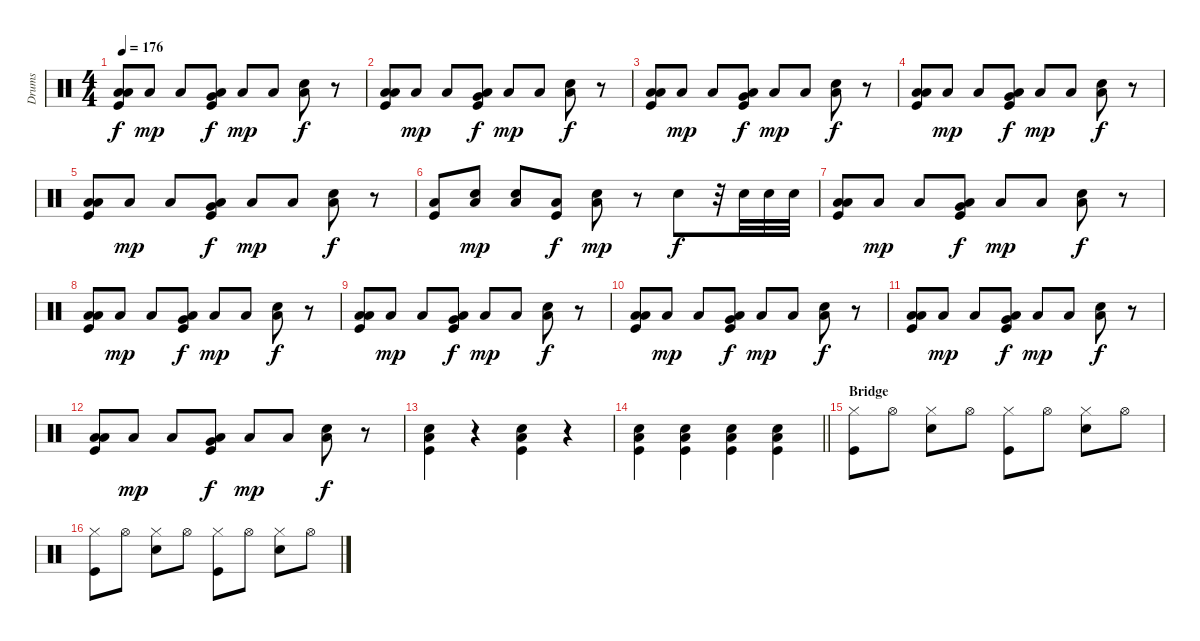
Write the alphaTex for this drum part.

\track ("Drums" "Drums") {instrument percussion}
\staff {score}
\articulation defaults
\ts (4 4)
\tempo 176
\clef neutral
\ks c
("Low Tom (hit)" "Low Floor Tom (hit)" "Kick (hit)").8{dy f} "Low Floor Tom (hit)".8{dy mp} "Low Floor Tom (hit)".8 ("Very Low Tom (hit)" "Low Floor Tom (hit)" "Kick (hit)").8{dy f} "Low Floor Tom (hit)".8{dy mp} "Low Floor Tom (hit)".8 ("Electric Snare (hit)" "Low Floor Tom (hit)").8{dy f} r.8 |
("Low Tom (hit)" "Low Floor Tom (hit)" "Kick (hit)").8 "Low Floor Tom (hit)".8{dy mp} "Low Floor Tom (hit)".8 ("Very Low Tom (hit)" "Low Floor Tom (hit)" "Kick (hit)").8{dy f} "Low Floor Tom (hit)".8{dy mp} "Low Floor Tom (hit)".8 ("Electric Snare (hit)" "Low Floor Tom (hit)").8{dy f} r.8 |
("Low Tom (hit)" "Low Floor Tom (hit)" "Kick (hit)").8 "Low Floor Tom (hit)".8{dy mp} "Low Floor Tom (hit)".8 ("Very Low Tom (hit)" "Low Floor Tom (hit)" "Kick (hit)").8{dy f} "Low Floor Tom (hit)".8{dy mp} "Low Floor Tom (hit)".8 ("Electric Snare (hit)" "Low Floor Tom (hit)").8{dy f} r.8 |
("Low Tom (hit)" "Low Floor Tom (hit)" "Kick (hit)").8 "Low Floor Tom (hit)".8{dy mp} "Low Floor Tom (hit)".8 ("Very Low Tom (hit)" "Low Floor Tom (hit)" "Kick (hit)").8{dy f} "Low Floor Tom (hit)".8{dy mp} "Low Floor Tom (hit)".8 ("Electric Snare (hit)" "Low Floor Tom (hit)").8{dy f} r.8 |
("Low Tom (hit)" "Low Floor Tom (hit)" "Kick (hit)").8 "Low Floor Tom (hit)".8{dy mp} "Low Floor Tom (hit)".8 ("Very Low Tom (hit)" "Low Floor Tom (hit)" "Kick (hit)").8{dy f} "Low Floor Tom (hit)".8{dy mp} "Low Floor Tom (hit)".8 ("Electric Snare (hit)" "Low Floor Tom (hit)").8{dy f} r.8 |
("Low Floor Tom (hit)" "Kick (hit)").8 ("Electric Snare (hit)" "Low Floor Tom (hit)").8{dy mp} ("Electric Snare (hit)" "Low Floor Tom (hit)").8 ("Low Floor Tom (hit)" "Kick (hit)").8{dy f} ("Electric Snare (hit)" "Low Floor Tom (hit)").8{dy mp} r.8 "Electric Snare (hit)".8{dy f} r.32 "Electric Snare (hit)".32 "Electric Snare (hit)".32 "Electric Snare (hit)".32 |
("Low Tom (hit)" "Low Floor Tom (hit)" "Kick (hit)").8 "Low Floor Tom (hit)".8{dy mp} "Low Floor Tom (hit)".8 ("Very Low Tom (hit)" "Low Floor Tom (hit)" "Kick (hit)").8{dy f} "Low Floor Tom (hit)".8{dy mp} "Low Floor Tom (hit)".8 ("Electric Snare (hit)" "Low Floor Tom (hit)").8{dy f} r.8 |
("Low Tom (hit)" "Low Floor Tom (hit)" "Kick (hit)").8 "Low Floor Tom (hit)".8{dy mp} "Low Floor Tom (hit)".8 ("Very Low Tom (hit)" "Low Floor Tom (hit)" "Kick (hit)").8{dy f} "Low Floor Tom (hit)".8{dy mp} "Low Floor Tom (hit)".8 ("Electric Snare (hit)" "Low Floor Tom (hit)").8{dy f} r.8 |
("Low Tom (hit)" "Low Floor Tom (hit)" "Kick (hit)").8 "Low Floor Tom (hit)".8{dy mp} "Low Floor Tom (hit)".8 ("Very Low Tom (hit)" "Low Floor Tom (hit)" "Kick (hit)").8{dy f} "Low Floor Tom (hit)".8{dy mp} "Low Floor Tom (hit)".8 ("Electric Snare (hit)" "Low Floor Tom (hit)").8{dy f} r.8 |
("Low Tom (hit)" "Low Floor Tom (hit)" "Kick (hit)").8 "Low Floor Tom (hit)".8{dy mp} "Low Floor Tom (hit)".8 ("Very Low Tom (hit)" "Low Floor Tom (hit)" "Kick (hit)").8{dy f} "Low Floor Tom (hit)".8{dy mp} "Low Floor Tom (hit)".8 ("Electric Snare (hit)" "Low Floor Tom (hit)").8{dy f} r.8 |
("Low Tom (hit)" "Low Floor Tom (hit)" "Kick (hit)").8 "Low Floor Tom (hit)".8{dy mp} "Low Floor Tom (hit)".8 ("Very Low Tom (hit)" "Low Floor Tom (hit)" "Kick (hit)").8{dy f} "Low Floor Tom (hit)".8{dy mp} "Low Floor Tom (hit)".8 ("Electric Snare (hit)" "Low Floor Tom (hit)").8{dy f} r.8 |
("Low Tom (hit)" "Low Floor Tom (hit)" "Kick (hit)").8 "Low Floor Tom (hit)".8{dy mp} "Low Floor Tom (hit)".8 ("Very Low Tom (hit)" "Low Floor Tom (hit)" "Kick (hit)").8{dy f} "Low Floor Tom (hit)".8{dy mp} "Low Floor Tom (hit)".8 ("Electric Snare (hit)" "Low Floor Tom (hit)").8{dy f} r.8 |
("Electric Snare (hit)" "Low Floor Tom (hit)" "Kick (hit)").4 r.4 ("Electric Snare (hit)" "Low Floor Tom (hit)" "Kick (hit)").4 r.4 |
\barLineRight lightlight
("Electric Snare (hit)" "Low Floor Tom (hit)" "Kick (hit)").4 ("Electric Snare (hit)" "Low Floor Tom (hit)" "Kick (hit)").4 ("Electric Snare (hit)" "Low Floor Tom (hit)" "Kick (hit)").4 ("Electric Snare (hit)" "Low Floor Tom (hit)" "Kick (hit)").4 |
\section ("" "Bridge")
("Hi-Hat (closed)" "Kick (hit)").8 "Hi-Hat (open)".8 ("Hi-Hat (closed)" "Electric Snare (hit)").8 "Hi-Hat (open)".8 ("Hi-Hat (closed)" "Kick (hit)").8 "Hi-Hat (open)".8 ("Hi-Hat (closed)" "Electric Snare (hit)").8 "Hi-Hat (open)".8 |
("Hi-Hat (closed)" "Kick (hit)").8 "Hi-Hat (open)".8 ("Hi-Hat (closed)" "Electric Snare (hit)").8 "Hi-Hat (open)".8 ("Hi-Hat (closed)" "Kick (hit)").8 "Hi-Hat (open)".8 ("Hi-Hat (closed)" "Electric Snare (hit)").8 "Hi-Hat (open)".8
